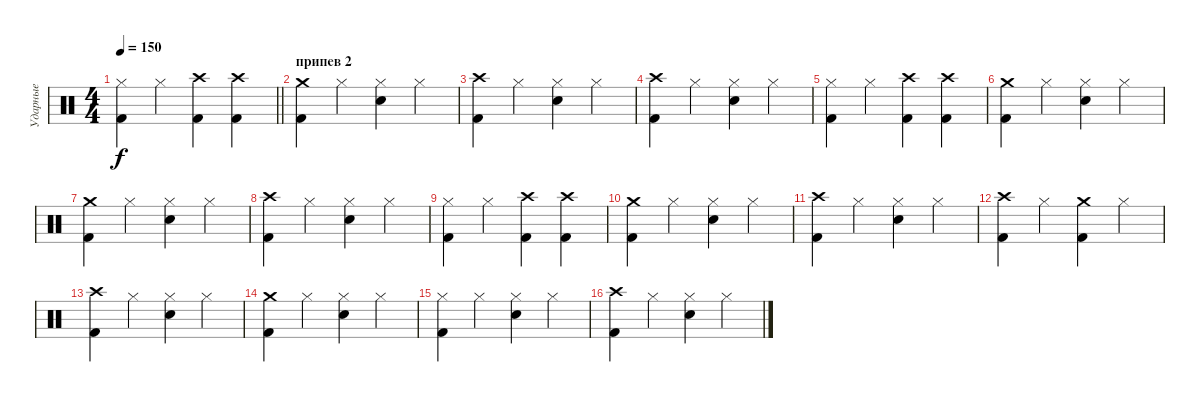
\track ("Ударные" "Ударные") {instrument percussion}
\staff {score}
\articulation defaults
\ts (4 4)
\tempo 150
\clef neutral
\barLineRight lightlight
\ks c
("Hi-Hat (closed)" "Kick (hit) 2").4{dy f} "Hi-Hat (closed)".4 ("Crash high (hit)" "Kick (hit) 2").4 ("Crash high (hit)" "Kick (hit) 2").4 |
\section ("" "припев 2")
("Crash medium (hit)" "Kick (hit) 2").4 "Hi-Hat (closed)".4 ("Hi-Hat (closed)" "Snare (hit) 2").4 "Hi-Hat (closed)".4 |
("Crash high (hit)" "Kick (hit) 2").4 "Hi-Hat (closed)".4 ("Hi-Hat (closed)" "Snare (hit) 2").4 "Hi-Hat (closed)".4 |
("Crash high (hit)" "Kick (hit) 2").4 "Hi-Hat (closed)".4 ("Hi-Hat (closed)" "Snare (hit) 2").4 "Hi-Hat (closed)".4 |
("Hi-Hat (closed)" "Kick (hit) 2").4 "Hi-Hat (closed)".4 ("Crash high (hit)" "Kick (hit) 2").4 ("Crash high (hit)" "Kick (hit) 2").4 |
("Crash medium (hit)" "Kick (hit) 2").4 "Hi-Hat (closed)".4 ("Hi-Hat (closed)" "Snare (hit) 2").4 "Hi-Hat (closed)".4 |
("Crash medium (hit)" "Kick (hit) 2").4 "Hi-Hat (closed)".4 ("Hi-Hat (closed)" "Snare (hit) 2").4 "Hi-Hat (closed)".4 |
("Crash high (hit)" "Kick (hit) 2").4 "Hi-Hat (closed)".4 ("Hi-Hat (closed)" "Snare (hit) 2").4 "Hi-Hat (closed)".4 |
("Hi-Hat (closed)" "Kick (hit) 2").4 "Hi-Hat (closed)".4 ("Crash high (hit)" "Kick (hit) 2").4 ("Crash high (hit)" "Kick (hit) 2").4 |
("Crash medium (hit)" "Kick (hit) 2").4 "Hi-Hat (closed)".4 ("Hi-Hat (closed)" "Snare (hit) 2").4 "Hi-Hat (closed)".4 |
("Crash high (hit)" "Kick (hit) 2").4 "Hi-Hat (closed)".4 ("Hi-Hat (closed)" "Snare (hit) 2").4 "Hi-Hat (closed)".4 |
("Crash high (hit)" "Kick (hit) 2").4 "Hi-Hat (closed)".4 ("Crash medium (hit)" "Kick (hit) 2").4 "Hi-Hat (closed)".4 |
("Crash high (hit)" "Kick (hit) 2").4 "Hi-Hat (closed)".4 ("Hi-Hat (closed)" "Snare (hit) 2").4 "Hi-Hat (closed)".4 |
("Crash medium (hit)" "Kick (hit) 2").4 "Hi-Hat (closed)".4 ("Hi-Hat (closed)" "Snare (hit) 2").4 "Hi-Hat (closed)".4 |
("Hi-Hat (closed)" "Kick (hit) 2").4 "Hi-Hat (closed)".4 ("Hi-Hat (closed)" "Snare (hit) 2").4 "Hi-Hat (closed)".4 |
("Crash high (hit)" "Kick (hit) 2").4 "Hi-Hat (closed)".4 ("Hi-Hat (closed)" "Snare (hit) 2").4 "Hi-Hat (closed)".4
